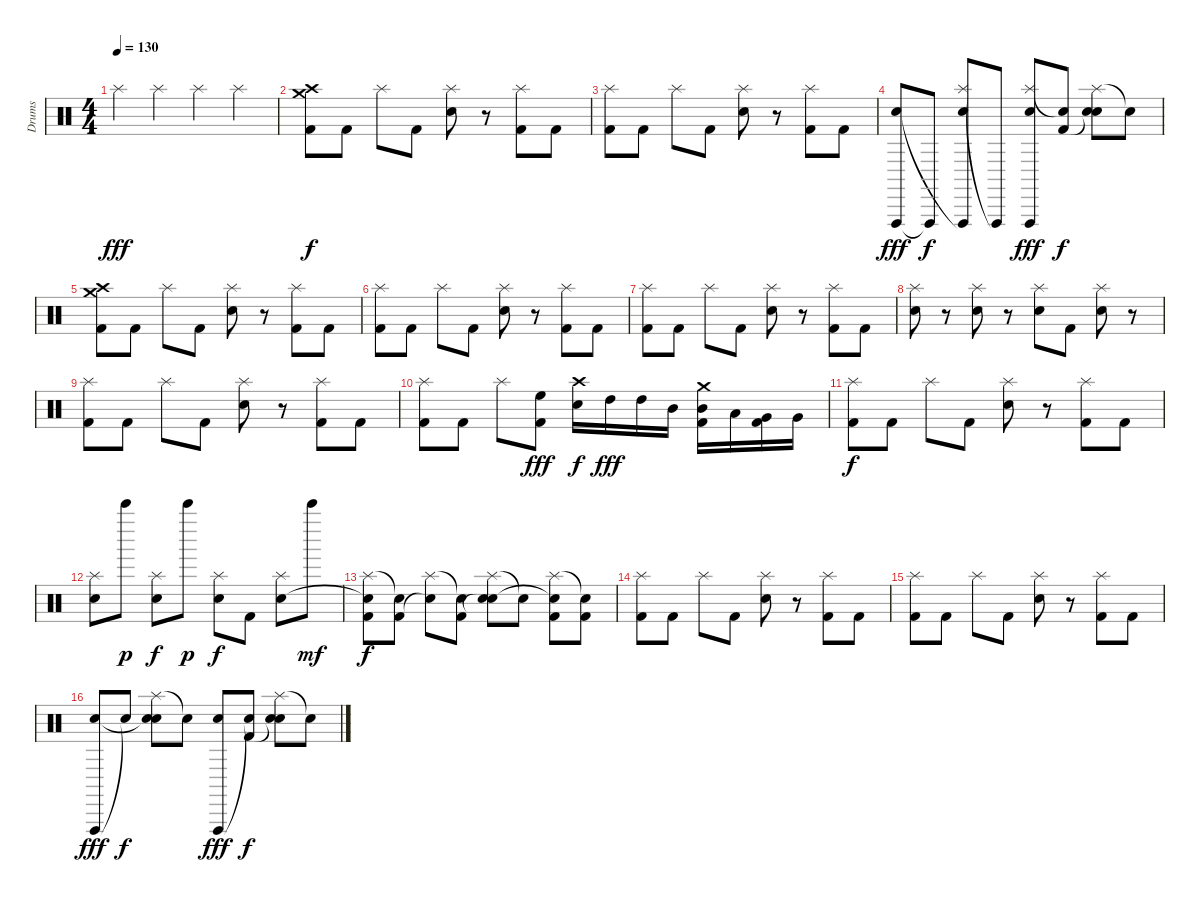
\track ("Drums" "Drums") {instrument percussion}
\staff {score}
\articulation defaults
\ts (4 4)
\tempo 130
\clef neutral
\ks c "Splash (hit)".4{dy fff balance 0} "Splash (hit)".4{balance 16} "Splash (hit)".4{balance 4} "Splash (hit)".4{balance 8}
|
("Crash high (hit)" "Crash medium (hit)" "Kick (hit) 2").8{dy f balance 12} "Kick (hit) 2".8 "Splash (hit)".8 "Kick (hit) 2".8 ("Splash (hit)" "Snare (hit) 2").8 r.8 ("Splash (hit)" "Kick (hit) 2").8 "Kick (hit) 2".8 |
("Splash (hit)" "Kick (hit) 2").8 "Kick (hit) 2".8 "Splash (hit)".8 "Kick (hit) 2".8 ("Splash (hit)" "Snare (hit) 2").8 r.8 ("Splash (hit)" "Kick (hit) 2").8 "Kick (hit) 2".8 |
("Vibraslap (hit)" "Snare (hit) 2").8{dy fff} "Vibraslap (hit)"{t}.8{dy f} ("Splash (hit)" "Vibraslap (hit)"{t} "Snare (hit) 2").8 "Vibraslap (hit)"{t}.8 ("Splash (hit)" "Vibraslap (hit)" "Snare (hit) 2").8{dy fff} ("Snare (hit)"{t} "Kick (hit) 2").8{dy f} ("Splash (hit)" "Snare (hit)"{t} "Snare (hit) 2").8 "Snare (hit)"{t}.8 |
("Crash high (hit)" "Crash medium (hit)" "Kick (hit) 2").8 "Kick (hit) 2".8 "Splash (hit)".8 "Kick (hit) 2".8 ("Splash (hit)" "Snare (hit) 2").8 r.8 ("Splash (hit)" "Kick (hit) 2").8 "Kick (hit) 2".8 |
("Splash (hit)" "Kick (hit) 2").8 "Kick (hit) 2".8 "Splash (hit)".8 "Kick (hit) 2".8 ("Splash (hit)" "Snare (hit) 2").8 r.8 ("Splash (hit)" "Kick (hit) 2").8 "Kick (hit) 2".8 |
("Splash (hit)" "Kick (hit) 2").8 "Kick (hit) 2".8 "Splash (hit)".8 "Kick (hit) 2".8 ("Splash (hit)" "Snare (hit) 2").8 r.8 ("Splash (hit)" "Kick (hit) 2").8 "Kick (hit) 2".8 |
("Splash (hit)" "Snare (hit) 2").8 r.8 ("Splash (hit)" "Snare (hit) 2").8 r.8 ("Splash (hit)" "Snare (hit) 2").8 "Kick (hit) 2".8 ("Splash (hit)" "Snare (hit) 2").8 r.8 |
("Splash (hit)" "Kick (hit) 2").8 "Kick (hit) 2".8 "Splash (hit)".8 "Kick (hit) 2".8 ("Splash (hit)" "Snare (hit) 2").8 r.8 ("Splash (hit)" "Kick (hit) 2").8 "Kick (hit) 2".8 |
("Splash (hit)" "Kick (hit) 2").8 "Kick (hit) 2".8 "Splash (hit)".8 ("High Floor Tom (hit)" "Kick (hit) 2").8{dy fff} ("Crash high (hit)" "Snare (hit) 2").16{dy f} "High Tom (hit)".16{dy fff} "High Tom (hit)".16 "Mid Tom (hit)".16 ("Crash medium (hit)" "Mid Tom (hit)" "Kick (hit) 2").16 "Low Tom (hit)".16 ("Very Low Tom (hit)" "Kick (hit) 2").16 "Very Low Tom (hit)".16 |
("Splash (hit)" "Kick (hit) 2").8{dy f} "Kick (hit) 2".8 "Splash (hit)".8 "Kick (hit) 2".8 ("Splash (hit)" "Snare (hit) 2").8 r.8 ("Splash (hit)" "Kick (hit) 2").8 "Kick (hit) 2".8 |
("Splash (hit)" "Snare (hit) 2").8 "Bell Tree (hit)".8{dy p} ("Splash (hit)" "Snare (hit) 2").8{dy f} "Bell Tree (hit)".8{dy p} ("Splash (hit)" "Snare (hit) 2").8{dy f} "Kick (hit) 2".8 ("Splash (hit)" "Snare (hit) 2").8 "Bell Tree (hit)".8{dy mf} |
("Splash (hit)" "Snare (hit)"{t} "Kick (hit) 2").8{dy f} ("Snare (hit)"{t} "Kick (hit) 2").8 ("Splash (hit)" "Snare (hit)"{t}).8 ("Snare (hit)"{t} "Kick (hit) 2").8 ("Splash (hit)" "Snare (hit)"{t} "Snare (hit) 2").8 "Snare (hit)"{t}.8 ("Splash (hit)" "Snare (hit)"{t} "Kick (hit) 2").8 ("Snare (hit)"{t} "Kick (hit) 2").8 |
("Splash (hit)" "Kick (hit) 2").8 "Kick (hit) 2".8 "Splash (hit)".8 "Kick (hit) 2".8 ("Splash (hit)" "Snare (hit) 2").8 r.8 ("Splash (hit)" "Kick (hit) 2").8 "Kick (hit) 2".8 |
("Splash (hit)" "Kick (hit) 2").8 "Kick (hit) 2".8 "Splash (hit)".8 "Kick (hit) 2".8 ("Splash (hit)" "Snare (hit) 2").8 r.8 ("Splash (hit)" "Kick (hit) 2").8 "Kick (hit) 2".8 |
("Vibraslap (hit)" "Snare (hit) 2").8{dy fff} "Snare (hit)"{t}.8{dy f} ("Splash (hit)" "Snare (hit)"{t} "Snare (hit) 2").8 "Snare (hit)"{t}.8 ("Vibraslap (hit)" "Snare (hit) 2").8{dy fff} ("Snare (hit)"{t} "Kick (hit) 2").8{dy f} ("Splash (hit)" "Snare (hit)"{t} "Snare (hit) 2").8 "Snare (hit)"{t}.8
